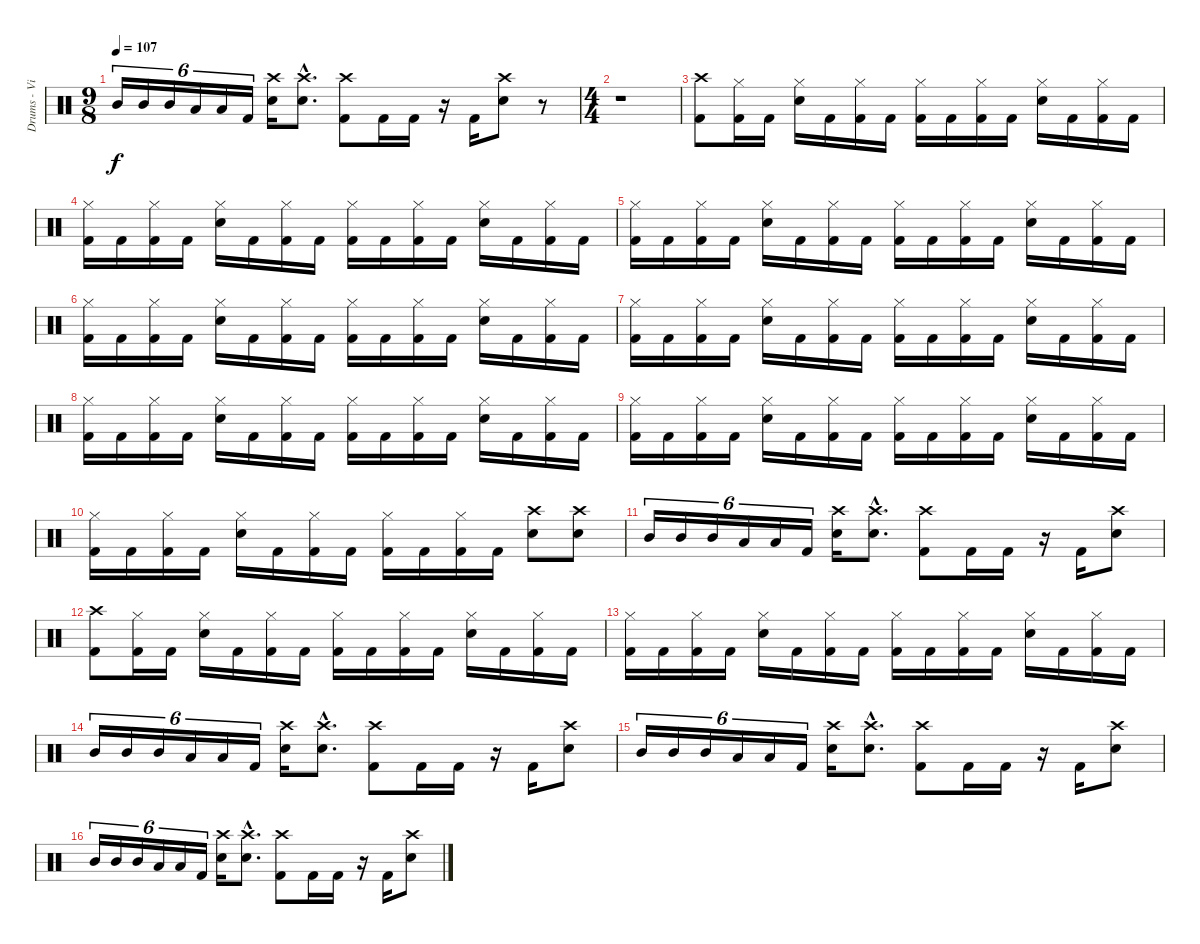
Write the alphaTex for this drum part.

\track ("Drums - Vinnie Paul" "Drums - Vi") {instrument percussion}
\staff {score}
\articulation defaults
\ts (9 8)
\tempo 107
\clef neutral
\ks c "Mid Tom (hit)".16{tu (6 4) dy f} "Mid Tom (hit)".16{tu (6 4)} "Mid Tom (hit)".16{tu (6 4)} "Low Tom (hit)".16{tu (6 4)} "Low Tom (hit)".16{tu (6 4)} "Kick (hit) 2".16{tu (6 4)}
("Crash high (hit)" "Electric Snare (hit)").16 ("Crash high (hit)"{hac} "Electric Snare (hit)"{hac}).8{d} ("Crash high (hit)" "Kick (hit) 2").8 "Kick (hit) 2".16 "Kick (hit) 2".16 r.16 "Kick (hit) 2".16 ("Crash high (hit)" "Electric Snare (hit)").8 r.8 |
\ts (4 4)
r.1 |
("Crash high (hit)" "Kick (hit) 2").8 ("Hi-Hat (closed)" "Kick (hit) 2").16 "Kick (hit) 2".16 ("Hi-Hat (closed)" "Electric Snare (hit)").16 "Kick (hit) 2".16 ("Hi-Hat (closed)" "Kick (hit) 2").16 "Kick (hit) 2".16 ("Hi-Hat (closed)" "Kick (hit) 2").16 "Kick (hit) 2".16 ("Hi-Hat (closed)" "Kick (hit) 2").16 "Kick (hit) 2".16 ("Hi-Hat (closed)" "Electric Snare (hit)").16 "Kick (hit) 2".16 ("Hi-Hat (closed)" "Kick (hit) 2").16 "Kick (hit) 2".16 |
("Hi-Hat (closed)" "Kick (hit) 2").16 "Kick (hit) 2".16 ("Hi-Hat (closed)" "Kick (hit) 2").16 "Kick (hit) 2".16 ("Hi-Hat (closed)" "Electric Snare (hit)").16 "Kick (hit) 2".16 ("Hi-Hat (closed)" "Kick (hit) 2").16 "Kick (hit) 2".16 ("Hi-Hat (closed)" "Kick (hit) 2").16 "Kick (hit) 2".16 ("Hi-Hat (closed)" "Kick (hit) 2").16 "Kick (hit) 2".16 ("Hi-Hat (closed)" "Electric Snare (hit)").16 "Kick (hit) 2".16 ("Hi-Hat (closed)" "Kick (hit) 2").16 "Kick (hit) 2".16 |
("Hi-Hat (closed)" "Kick (hit) 2").16 "Kick (hit) 2".16 ("Hi-Hat (closed)" "Kick (hit) 2").16 "Kick (hit) 2".16 ("Hi-Hat (closed)" "Electric Snare (hit)").16 "Kick (hit) 2".16 ("Hi-Hat (closed)" "Kick (hit) 2").16 "Kick (hit) 2".16 ("Hi-Hat (closed)" "Kick (hit) 2").16 "Kick (hit) 2".16 ("Hi-Hat (closed)" "Kick (hit) 2").16 "Kick (hit) 2".16 ("Hi-Hat (closed)" "Electric Snare (hit)").16 "Kick (hit) 2".16 ("Hi-Hat (closed)" "Kick (hit) 2").16 "Kick (hit) 2".16 |
("Hi-Hat (closed)" "Kick (hit) 2").16 "Kick (hit) 2".16 ("Hi-Hat (closed)" "Kick (hit) 2").16 "Kick (hit) 2".16 ("Hi-Hat (closed)" "Electric Snare (hit)").16 "Kick (hit) 2".16 ("Hi-Hat (closed)" "Kick (hit) 2").16 "Kick (hit) 2".16 ("Hi-Hat (closed)" "Kick (hit) 2").16 "Kick (hit) 2".16 ("Hi-Hat (closed)" "Kick (hit) 2").16 "Kick (hit) 2".16 ("Hi-Hat (closed)" "Electric Snare (hit)").16 "Kick (hit) 2".16 ("Hi-Hat (closed)" "Kick (hit) 2").16 "Kick (hit) 2".16 |
("Hi-Hat (closed)" "Kick (hit) 2").16 "Kick (hit) 2".16 ("Hi-Hat (closed)" "Kick (hit) 2").16 "Kick (hit) 2".16 ("Hi-Hat (closed)" "Electric Snare (hit)").16 "Kick (hit) 2".16 ("Hi-Hat (closed)" "Kick (hit) 2").16 "Kick (hit) 2".16 ("Hi-Hat (closed)" "Kick (hit) 2").16 "Kick (hit) 2".16 ("Hi-Hat (closed)" "Kick (hit) 2").16 "Kick (hit) 2".16 ("Hi-Hat (closed)" "Electric Snare (hit)").16 "Kick (hit) 2".16 ("Hi-Hat (closed)" "Kick (hit) 2").16 "Kick (hit) 2".16 |
("Hi-Hat (closed)" "Kick (hit) 2").16 "Kick (hit) 2".16 ("Hi-Hat (closed)" "Kick (hit) 2").16 "Kick (hit) 2".16 ("Hi-Hat (closed)" "Electric Snare (hit)").16 "Kick (hit) 2".16 ("Hi-Hat (closed)" "Kick (hit) 2").16 "Kick (hit) 2".16 ("Hi-Hat (closed)" "Kick (hit) 2").16 "Kick (hit) 2".16 ("Hi-Hat (closed)" "Kick (hit) 2").16 "Kick (hit) 2".16 ("Hi-Hat (closed)" "Electric Snare (hit)").16 "Kick (hit) 2".16 ("Hi-Hat (closed)" "Kick (hit) 2").16 "Kick (hit) 2".16 |
("Hi-Hat (closed)" "Kick (hit) 2").16 "Kick (hit) 2".16 ("Hi-Hat (closed)" "Kick (hit) 2").16 "Kick (hit) 2".16 ("Hi-Hat (closed)" "Electric Snare (hit)").16 "Kick (hit) 2".16 ("Hi-Hat (closed)" "Kick (hit) 2").16 "Kick (hit) 2".16 ("Hi-Hat (closed)" "Kick (hit) 2").16 "Kick (hit) 2".16 ("Hi-Hat (closed)" "Kick (hit) 2").16 "Kick (hit) 2".16 ("Hi-Hat (closed)" "Electric Snare (hit)").16 "Kick (hit) 2".16 ("Hi-Hat (closed)" "Kick (hit) 2").16 "Kick (hit) 2".16 |
("Hi-Hat (closed)" "Kick (hit) 2").16 "Kick (hit) 2".16 ("Hi-Hat (closed)" "Kick (hit) 2").16 "Kick (hit) 2".16 ("Hi-Hat (closed)" "Electric Snare (hit)").16 "Kick (hit) 2".16 ("Hi-Hat (closed)" "Kick (hit) 2").16 "Kick (hit) 2".16 ("Hi-Hat (closed)" "Kick (hit) 2").16 "Kick (hit) 2".16 ("Hi-Hat (closed)" "Kick (hit) 2").16 "Kick (hit) 2".16 ("Crash high (hit)" "Electric Snare (hit)").8 ("Crash high (hit)" "Electric Snare (hit)").8 |
"Mid Tom (hit)".16{tu (6 4)} "Mid Tom (hit)".16{tu (6 4)} "Mid Tom (hit)".16{tu (6 4)} "Low Tom (hit)".16{tu (6 4)} "Low Tom (hit)".16{tu (6 4)} "Kick (hit) 2".16{tu (6 4)} ("Crash high (hit)" "Electric Snare (hit)").16 ("Crash high (hit)"{hac} "Electric Snare (hit)"{hac}).8{d} ("Crash high (hit)" "Kick (hit) 2").8 "Kick (hit) 2".16 "Kick (hit) 2".16 r.16 "Kick (hit) 2".16 ("Crash high (hit)" "Electric Snare (hit)").8 |
("Crash high (hit)" "Kick (hit) 2").8 ("Hi-Hat (closed)" "Kick (hit) 2").16 "Kick (hit) 2".16 ("Hi-Hat (closed)" "Electric Snare (hit)").16 "Kick (hit) 2".16 ("Hi-Hat (closed)" "Kick (hit) 2").16 "Kick (hit) 2".16 ("Hi-Hat (closed)" "Kick (hit) 2").16 "Kick (hit) 2".16 ("Hi-Hat (closed)" "Kick (hit) 2").16 "Kick (hit) 2".16 ("Hi-Hat (closed)" "Electric Snare (hit)").16 "Kick (hit) 2".16 ("Hi-Hat (closed)" "Kick (hit) 2").16 "Kick (hit) 2".16 |
("Hi-Hat (closed)" "Kick (hit) 2").16 "Kick (hit) 2".16 ("Hi-Hat (closed)" "Kick (hit) 2").16 "Kick (hit) 2".16 ("Hi-Hat (closed)" "Electric Snare (hit)").16 "Kick (hit) 2".16 ("Hi-Hat (closed)" "Kick (hit) 2").16 "Kick (hit) 2".16 ("Hi-Hat (closed)" "Kick (hit) 2").16 "Kick (hit) 2".16 ("Hi-Hat (closed)" "Kick (hit) 2").16 "Kick (hit) 2".16 ("Hi-Hat (closed)" "Electric Snare (hit)").16 "Kick (hit) 2".16 ("Hi-Hat (closed)" "Kick (hit) 2").16 "Kick (hit) 2".16 |
"Mid Tom (hit)".16{tu (6 4)} "Mid Tom (hit)".16{tu (6 4)} "Mid Tom (hit)".16{tu (6 4)} "Low Tom (hit)".16{tu (6 4)} "Low Tom (hit)".16{tu (6 4)} "Kick (hit) 2".16{tu (6 4)} ("Crash high (hit)" "Electric Snare (hit)").16 ("Crash high (hit)"{hac} "Electric Snare (hit)"{hac}).8{d} ("Crash high (hit)" "Kick (hit) 2").8 "Kick (hit) 2".16 "Kick (hit) 2".16 r.16 "Kick (hit) 2".16 ("Crash high (hit)" "Electric Snare (hit)").8 |
"Mid Tom (hit)".16{tu (6 4)} "Mid Tom (hit)".16{tu (6 4)} "Mid Tom (hit)".16{tu (6 4)} "Low Tom (hit)".16{tu (6 4)} "Low Tom (hit)".16{tu (6 4)} "Kick (hit) 2".16{tu (6 4)} ("Crash high (hit)" "Electric Snare (hit)").16 ("Crash high (hit)"{hac} "Electric Snare (hit)"{hac}).8{d} ("Crash high (hit)" "Kick (hit) 2").8 "Kick (hit) 2".16 "Kick (hit) 2".16 r.16 "Kick (hit) 2".16 ("Crash high (hit)" "Electric Snare (hit)").8 |
"Mid Tom (hit)".16{tu (6 4)} "Mid Tom (hit)".16{tu (6 4)} "Mid Tom (hit)".16{tu (6 4)} "Low Tom (hit)".16{tu (6 4)} "Low Tom (hit)".16{tu (6 4)} "Kick (hit) 2".16{tu (6 4)} ("Crash high (hit)" "Electric Snare (hit)").16 ("Crash high (hit)"{hac} "Electric Snare (hit)"{hac}).8{d} ("Crash high (hit)" "Kick (hit) 2").8 "Kick (hit) 2".16 "Kick (hit) 2".16 r.16 "Kick (hit) 2".16 ("Crash high (hit)" "Electric Snare (hit)").8
